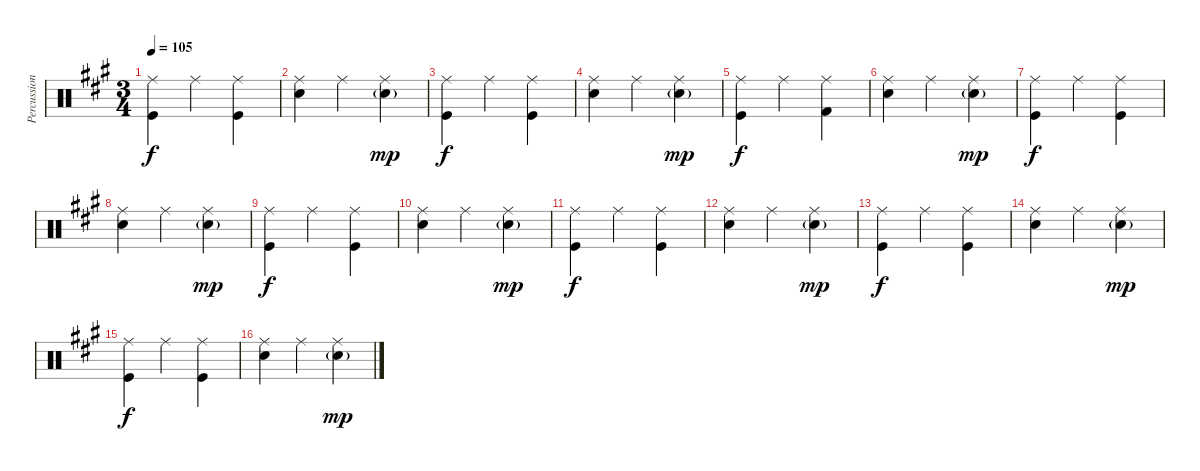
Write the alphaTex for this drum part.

\track ("Percussion" "Percussion") {instrument percussion}
\staff {score}
\articulation defaults
\ts (3 4)
\tempo 105
\clef neutral
\ks a
("Ride (middle)" "Kick (hit)").4{dy f} "Ride (middle)".4 ("Ride (middle)" "Kick (hit)").4 |
("Ride (middle)" "Snare (hit) 2").4 "Ride (middle)".4 ("Ride (middle)" "Snare (hit) 2"{g}).4{dy mp} |
("Ride (middle)" "Kick (hit)").4{dy f} "Ride (middle)".4 ("Ride (middle)" "Kick (hit)").4 |
("Ride (middle)" "Snare (hit) 2").4 "Ride (middle)".4 ("Ride (middle)" "Snare (hit) 2"{g}).4{dy mp} |
("Ride (middle)" "Kick (hit)").4{dy f} "Ride (middle)".4 ("Ride (middle)" "Kick (hit) 2").4 |
("Ride (middle)" "Snare (hit) 2").4 "Ride (middle)".4 ("Ride (middle)" "Snare (hit) 2"{g}).4{dy mp} |
("Ride (middle)" "Kick (hit)").4{dy f} "Ride (middle)".4 ("Ride (middle)" "Kick (hit)").4 |
("Ride (middle)" "Snare (hit) 2").4 "Ride (middle)".4 ("Ride (middle)" "Snare (hit) 2"{g}).4{dy mp} |
("Ride (middle)" "Kick (hit)").4{dy f} "Ride (middle)".4 ("Ride (middle)" "Kick (hit)").4 |
("Ride (middle)" "Snare (hit) 2").4 "Ride (middle)".4 ("Ride (middle)" "Snare (hit) 2"{g}).4{dy mp} |
("Ride (middle)" "Kick (hit)").4{dy f} "Ride (middle)".4 ("Ride (middle)" "Kick (hit)").4 |
("Ride (middle)" "Snare (hit) 2").4 "Ride (middle)".4 ("Ride (middle)" "Snare (hit) 2"{g}).4{dy mp} |
("Ride (middle)" "Kick (hit)").4{dy f} "Ride (middle)".4 ("Ride (middle)" "Kick (hit)").4 |
("Ride (middle)" "Snare (hit) 2").4 "Ride (middle)".4 ("Ride (middle)" "Snare (hit) 2"{g}).4{dy mp} |
("Ride (middle)" "Kick (hit)").4{dy f} "Ride (middle)".4 ("Ride (middle)" "Kick (hit)").4 |
("Ride (middle)" "Snare (hit) 2").4 "Ride (middle)".4 ("Ride (middle)" "Snare (hit) 2"{g}).4{dy mp}
